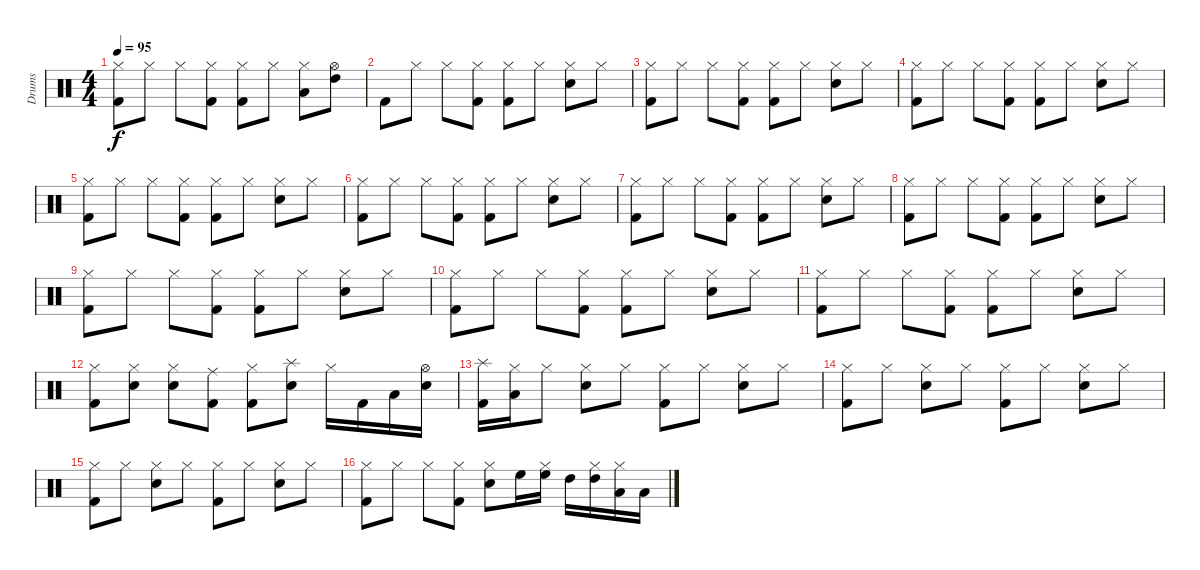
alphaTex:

\track ("Drums" "Drums") {instrument percussion}
\staff {score}
\articulation defaults
\ts (4 4)
\tempo 95
\clef neutral
\ks c
("Kick (hit) 2" "Hi-Hat (closed)").8{dy f} "Hi-Hat (closed)".8 "Hi-Hat (closed)".8 ("Kick (hit) 2" "Hi-Hat (closed)").8 ("Kick (hit) 2" "Hi-Hat (closed)").8 "Hi-Hat (closed)".8 ("Low Tom (hit)" "Hi-Hat (closed)").8 ("High Tom (hit)" "Hi-Hat (open)").8 |
"Kick (hit) 2".8 "Hi-Hat (closed)".8 "Hi-Hat (closed)".8 ("Kick (hit) 2" "Hi-Hat (closed)").8 ("Kick (hit) 2" "Hi-Hat (closed)").8 "Hi-Hat (closed)".8 ("Snare (hit) 2" "Hi-Hat (closed)").8 "Hi-Hat (closed)".8 |
("Kick (hit) 2" "Hi-Hat (closed)").8 "Hi-Hat (closed)".8 "Hi-Hat (closed)".8 ("Kick (hit) 2" "Hi-Hat (closed)").8 ("Kick (hit) 2" "Hi-Hat (closed)").8 "Hi-Hat (closed)".8 ("Snare (hit) 2" "Hi-Hat (closed)").8 "Hi-Hat (closed)".8 |
("Kick (hit) 2" "Hi-Hat (closed)").8 "Hi-Hat (closed)".8 "Hi-Hat (closed)".8 ("Kick (hit) 2" "Hi-Hat (closed)").8 ("Kick (hit) 2" "Hi-Hat (closed)").8 "Hi-Hat (closed)".8 ("Snare (hit) 2" "Hi-Hat (closed)").8 "Hi-Hat (closed)".8 |
("Kick (hit) 2" "Hi-Hat (closed)").8 "Hi-Hat (closed)".8 "Hi-Hat (closed)".8 ("Kick (hit) 2" "Hi-Hat (closed)").8 ("Kick (hit) 2" "Hi-Hat (closed)").8 "Hi-Hat (closed)".8 ("Snare (hit) 2" "Hi-Hat (closed)").8 "Hi-Hat (closed)".8 |
("Kick (hit) 2" "Hi-Hat (closed)").8 "Hi-Hat (closed)".8 "Hi-Hat (closed)".8 ("Kick (hit) 2" "Hi-Hat (closed)").8 ("Kick (hit) 2" "Hi-Hat (closed)").8 "Hi-Hat (closed)".8 ("Snare (hit) 2" "Hi-Hat (closed)").8 "Hi-Hat (closed)".8 |
("Kick (hit) 2" "Hi-Hat (closed)").8 "Hi-Hat (closed)".8 "Hi-Hat (closed)".8 ("Kick (hit) 2" "Hi-Hat (closed)").8 ("Kick (hit) 2" "Hi-Hat (closed)").8 "Hi-Hat (closed)".8 ("Snare (hit) 2" "Hi-Hat (closed)").8 "Hi-Hat (closed)".8 |
("Kick (hit) 2" "Hi-Hat (closed)").8 "Hi-Hat (closed)".8 "Hi-Hat (closed)".8 ("Kick (hit) 2" "Hi-Hat (closed)").8 ("Kick (hit) 2" "Hi-Hat (closed)").8 "Hi-Hat (closed)".8 ("Snare (hit) 2" "Hi-Hat (closed)").8 "Hi-Hat (closed)".8 |
("Kick (hit) 2" "Hi-Hat (closed)").8 "Hi-Hat (closed)".8 "Hi-Hat (closed)".8 ("Kick (hit) 2" "Hi-Hat (closed)").8 ("Kick (hit) 2" "Hi-Hat (closed)").8 "Hi-Hat (closed)".8 ("Snare (hit) 2" "Hi-Hat (closed)").8 "Hi-Hat (closed)".8 |
("Kick (hit) 2" "Hi-Hat (closed)").8 "Hi-Hat (closed)".8 "Hi-Hat (closed)".8 ("Kick (hit) 2" "Hi-Hat (closed)").8 ("Kick (hit) 2" "Hi-Hat (closed)").8 "Hi-Hat (closed)".8 ("Snare (hit) 2" "Hi-Hat (closed)").8 "Hi-Hat (closed)".8 |
("Kick (hit) 2" "Hi-Hat (closed)").8 "Hi-Hat (closed)".8 "Hi-Hat (closed)".8 ("Kick (hit) 2" "Hi-Hat (closed)").8 ("Kick (hit) 2" "Hi-Hat (closed)").8 "Hi-Hat (closed)".8 ("Snare (hit) 2" "Hi-Hat (closed)").8 "Hi-Hat (closed)".8 |
("Kick (hit) 2" "Hi-Hat (closed)").8 ("Snare (hit) 2" "Hi-Hat (closed)").8 ("Snare (hit) 2" "Hi-Hat (closed)").8 ("Kick (hit) 2" "Ride (middle)").8 ("Kick (hit) 2" "Hi-Hat (closed)").8 ("Snare (hit) 2" "Splash (hit)").8 "Hi-Hat (closed)".16 "Kick (hit) 2".16 "Low Floor Tom (hit)".16 ("Snare (hit) 2" "Hi-Hat (open)").16 |
("Kick (hit) 2" "Splash (hit)").16 ("Low Tom (hit)" "Hi-Hat (closed)").16 "Hi-Hat (closed)".8 ("Snare (hit) 2" "Hi-Hat (closed)").8 "Hi-Hat (closed)".8 ("Kick (hit) 2" "Hi-Hat (closed)").8 "Hi-Hat (closed)".8 ("Snare (hit) 2" "Hi-Hat (closed)").8 "Hi-Hat (closed)".8 |
("Kick (hit) 2" "Hi-Hat (closed)").8 "Hi-Hat (closed)".8 ("Snare (hit) 2" "Hi-Hat (closed)").8 "Hi-Hat (closed)".8 ("Kick (hit) 2" "Hi-Hat (closed)").8 "Hi-Hat (closed)".8 ("Snare (hit) 2" "Hi-Hat (closed)").8 "Hi-Hat (closed)".8 |
("Kick (hit) 2" "Hi-Hat (closed)").8 "Hi-Hat (closed)".8 ("Snare (hit) 2" "Hi-Hat (closed)").8 "Hi-Hat (closed)".8 ("Kick (hit) 2" "Hi-Hat (closed)").8 "Hi-Hat (closed)".8 ("Snare (hit) 2" "Hi-Hat (closed)").8 "Hi-Hat (closed)".8 |
("Kick (hit) 2" "Hi-Hat (closed)").8 "Hi-Hat (closed)".8 "Hi-Hat (closed)".8 ("Kick (hit) 2" "Hi-Hat (closed)").8 ("Snare (hit) 2" "Hi-Hat (closed)").8 "High Floor Tom (hit)".16 ("High Floor Tom (hit)" "Hi-Hat (closed)").16 "High Tom (hit)".16 ("High Tom (hit)" "Hi-Hat (closed)").16 ("Low Tom (hit)" "Hi-Hat (closed)").16 "Low Floor Tom (hit)".16
